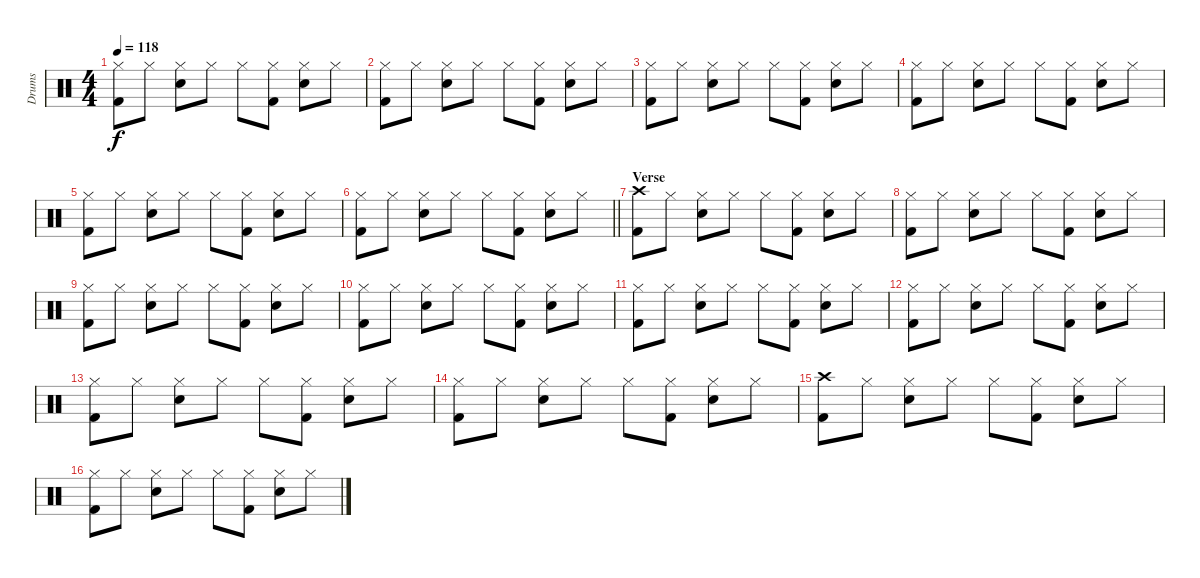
\track ("Drums" "Drums") {instrument percussion}
\staff {score}
\articulation defaults
\ts (4 4)
\tempo 118
\clef neutral
\ks c
("Hi-Hat (closed)" "Kick (hit) 2").8{dy f} "Hi-Hat (closed)".8 ("Hi-Hat (closed)" "Electric Snare (hit)").8 "Hi-Hat (closed)".8 "Hi-Hat (closed)".8 ("Hi-Hat (closed)" "Kick (hit) 2").8 ("Hi-Hat (closed)" "Electric Snare (hit)").8 "Hi-Hat (closed)".8 |
("Hi-Hat (closed)" "Kick (hit) 2").8 "Hi-Hat (closed)".8 ("Hi-Hat (closed)" "Electric Snare (hit)").8 "Hi-Hat (closed)".8 "Hi-Hat (closed)".8 ("Hi-Hat (closed)" "Kick (hit) 2").8 ("Hi-Hat (closed)" "Electric Snare (hit)").8 "Hi-Hat (closed)".8 |
("Hi-Hat (closed)" "Kick (hit) 2").8 "Hi-Hat (closed)".8 ("Hi-Hat (closed)" "Electric Snare (hit)").8 "Hi-Hat (closed)".8 "Hi-Hat (closed)".8 ("Hi-Hat (closed)" "Kick (hit) 2").8 ("Hi-Hat (closed)" "Electric Snare (hit)").8 "Hi-Hat (closed)".8 |
("Hi-Hat (closed)" "Kick (hit) 2").8 "Hi-Hat (closed)".8 ("Hi-Hat (closed)" "Electric Snare (hit)").8 "Hi-Hat (closed)".8 "Hi-Hat (closed)".8 ("Hi-Hat (closed)" "Kick (hit) 2").8 ("Hi-Hat (closed)" "Electric Snare (hit)").8 "Hi-Hat (closed)".8 |
("Hi-Hat (closed)" "Kick (hit) 2").8 "Hi-Hat (closed)".8 ("Hi-Hat (closed)" "Electric Snare (hit)").8 "Hi-Hat (closed)".8 "Hi-Hat (closed)".8 ("Hi-Hat (closed)" "Kick (hit) 2").8 ("Hi-Hat (closed)" "Electric Snare (hit)").8 "Hi-Hat (closed)".8 |
\barLineRight lightlight
("Hi-Hat (closed)" "Kick (hit) 2").8 "Hi-Hat (closed)".8 ("Hi-Hat (closed)" "Electric Snare (hit)").8 "Hi-Hat (closed)".8 "Hi-Hat (closed)".8 ("Hi-Hat (closed)" "Kick (hit) 2").8 ("Hi-Hat (closed)" "Electric Snare (hit)").8 "Hi-Hat (closed)".8 |
\section ("" "Verse")
("Crash high (hit)" "Kick (hit) 2").8 "Hi-Hat (closed)".8 ("Hi-Hat (closed)" "Electric Snare (hit)").8 "Hi-Hat (closed)".8 "Hi-Hat (closed)".8 ("Hi-Hat (closed)" "Kick (hit) 2").8 ("Hi-Hat (closed)" "Electric Snare (hit)").8 "Hi-Hat (closed)".8 |
("Hi-Hat (closed)" "Kick (hit) 2").8 "Hi-Hat (closed)".8 ("Hi-Hat (closed)" "Electric Snare (hit)").8 "Hi-Hat (closed)".8 "Hi-Hat (closed)".8 ("Hi-Hat (closed)" "Kick (hit) 2").8 ("Hi-Hat (closed)" "Electric Snare (hit)").8 "Hi-Hat (closed)".8 |
("Hi-Hat (closed)" "Kick (hit) 2").8 "Hi-Hat (closed)".8 ("Hi-Hat (closed)" "Electric Snare (hit)").8 "Hi-Hat (closed)".8 "Hi-Hat (closed)".8 ("Hi-Hat (closed)" "Kick (hit) 2").8 ("Hi-Hat (closed)" "Electric Snare (hit)").8 "Hi-Hat (closed)".8 |
("Hi-Hat (closed)" "Kick (hit) 2").8 "Hi-Hat (closed)".8 ("Hi-Hat (closed)" "Electric Snare (hit)").8 "Hi-Hat (closed)".8 "Hi-Hat (closed)".8 ("Hi-Hat (closed)" "Kick (hit) 2").8 ("Hi-Hat (closed)" "Electric Snare (hit)").8 "Hi-Hat (closed)".8 |
("Hi-Hat (closed)" "Kick (hit) 2").8 "Hi-Hat (closed)".8 ("Hi-Hat (closed)" "Electric Snare (hit)").8 "Hi-Hat (closed)".8 "Hi-Hat (closed)".8 ("Hi-Hat (closed)" "Kick (hit) 2").8 ("Hi-Hat (closed)" "Electric Snare (hit)").8 "Hi-Hat (closed)".8 |
("Hi-Hat (closed)" "Kick (hit) 2").8 "Hi-Hat (closed)".8 ("Hi-Hat (closed)" "Electric Snare (hit)").8 "Hi-Hat (closed)".8 "Hi-Hat (closed)".8 ("Hi-Hat (closed)" "Kick (hit) 2").8 ("Hi-Hat (closed)" "Electric Snare (hit)").8 "Hi-Hat (closed)".8 |
("Hi-Hat (closed)" "Kick (hit) 2").8 "Hi-Hat (closed)".8 ("Hi-Hat (closed)" "Electric Snare (hit)").8 "Hi-Hat (closed)".8 "Hi-Hat (closed)".8 ("Hi-Hat (closed)" "Kick (hit) 2").8 ("Hi-Hat (closed)" "Electric Snare (hit)").8 "Hi-Hat (closed)".8 |
("Hi-Hat (closed)" "Kick (hit) 2").8 "Hi-Hat (closed)".8 ("Hi-Hat (closed)" "Electric Snare (hit)").8 "Hi-Hat (closed)".8 "Hi-Hat (closed)".8 ("Hi-Hat (closed)" "Kick (hit) 2").8 ("Hi-Hat (closed)" "Electric Snare (hit)").8 "Hi-Hat (closed)".8 |
("Crash high (hit)" "Kick (hit) 2").8 "Hi-Hat (closed)".8 ("Hi-Hat (closed)" "Electric Snare (hit)").8 "Hi-Hat (closed)".8 "Hi-Hat (closed)".8 ("Hi-Hat (closed)" "Kick (hit) 2").8 ("Hi-Hat (closed)" "Electric Snare (hit)").8 "Hi-Hat (closed)".8 |
("Hi-Hat (closed)" "Kick (hit) 2").8 "Hi-Hat (closed)".8 ("Hi-Hat (closed)" "Electric Snare (hit)").8 "Hi-Hat (closed)".8 "Hi-Hat (closed)".8 ("Hi-Hat (closed)" "Kick (hit) 2").8 ("Hi-Hat (closed)" "Electric Snare (hit)").8 "Hi-Hat (closed)".8
